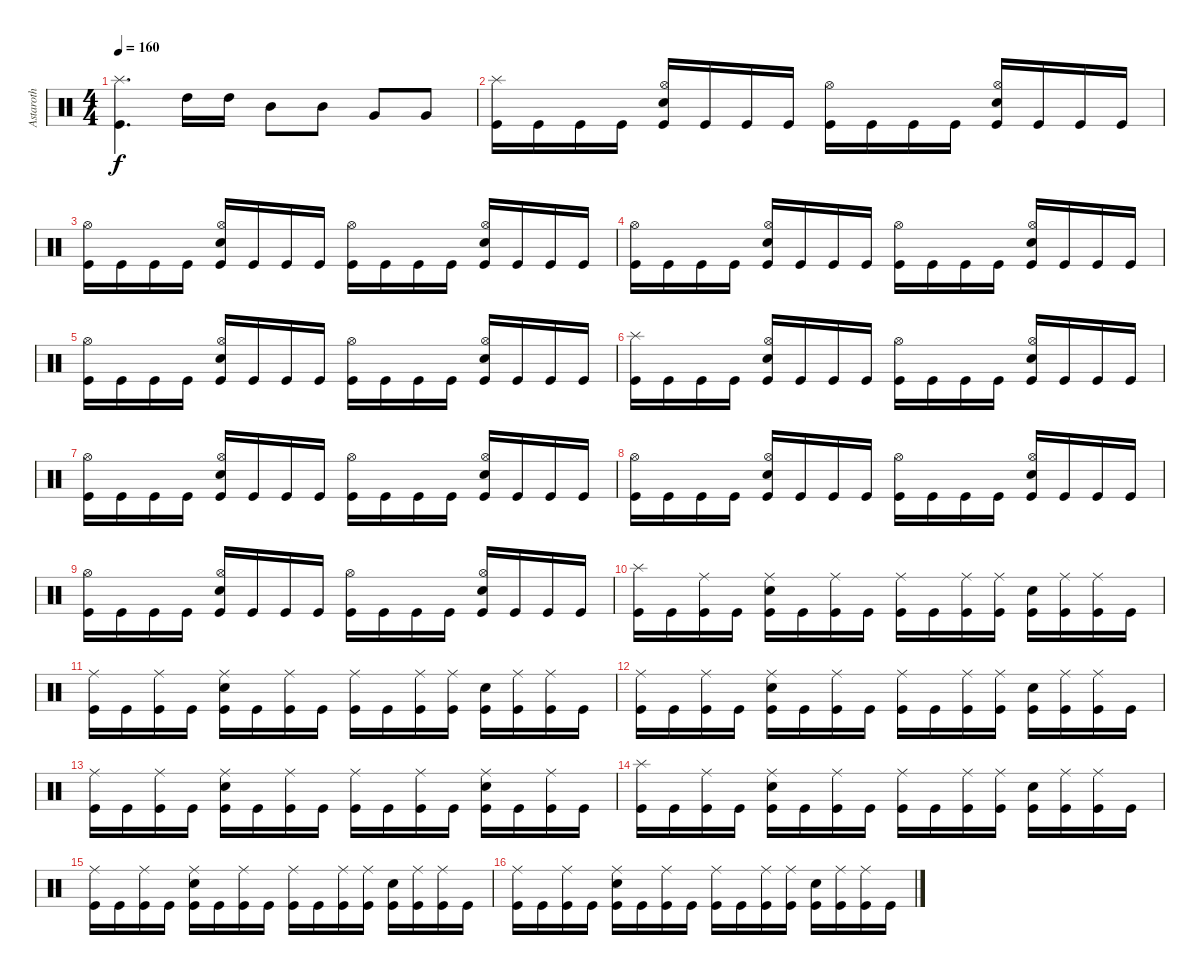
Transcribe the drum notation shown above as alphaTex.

\track ("Astaroth" "Astaroth") {instrument percussion}
\staff {score}
\articulation defaults
\ts (4 4)
\tempo 160
\clef neutral
\ks c
("Kick (hit)" "Splash (hit)").4{d dy f} "High Tom (hit)".16 "High Tom (hit)".16 "Mid Tom (hit)".8 "Mid Tom (hit)".8 "Very Low Tom (hit)".8 "Very Low Tom (hit)".8 |
("Kick (hit)" "Splash (hit)").16 "Kick (hit)".16 "Kick (hit)".16 "Kick (hit)".16 ("Kick (hit)" "Hi-Hat (open)" "Electric Snare (hit)").16 "Kick (hit)".16 "Kick (hit)".16 "Kick (hit)".16 ("Kick (hit)" "Hi-Hat (open)").16 "Kick (hit)".16 "Kick (hit)".16 "Kick (hit)".16 ("Kick (hit)" "Hi-Hat (open)" "Electric Snare (hit)").16 "Kick (hit)".16 "Kick (hit)".16 "Kick (hit)".16 |
("Kick (hit)" "Hi-Hat (open)").16 "Kick (hit)".16 "Kick (hit)".16 "Kick (hit)".16 ("Kick (hit)" "Hi-Hat (open)" "Electric Snare (hit)").16 "Kick (hit)".16 "Kick (hit)".16 "Kick (hit)".16 ("Kick (hit)" "Hi-Hat (open)").16 "Kick (hit)".16 "Kick (hit)".16 "Kick (hit)".16 ("Kick (hit)" "Hi-Hat (open)" "Electric Snare (hit)").16 "Kick (hit)".16 "Kick (hit)".16 "Kick (hit)".16 |
("Kick (hit)" "Hi-Hat (open)").16 "Kick (hit)".16 "Kick (hit)".16 "Kick (hit)".16 ("Kick (hit)" "Hi-Hat (open)" "Electric Snare (hit)").16 "Kick (hit)".16 "Kick (hit)".16 "Kick (hit)".16 ("Kick (hit)" "Hi-Hat (open)").16 "Kick (hit)".16 "Kick (hit)".16 "Kick (hit)".16 ("Kick (hit)" "Hi-Hat (open)" "Electric Snare (hit)").16 "Kick (hit)".16 "Kick (hit)".16 "Kick (hit)".16 |
("Kick (hit)" "Hi-Hat (open)").16 "Kick (hit)".16 "Kick (hit)".16 "Kick (hit)".16 ("Kick (hit)" "Hi-Hat (open)" "Electric Snare (hit)").16 "Kick (hit)".16 "Kick (hit)".16 "Kick (hit)".16 ("Kick (hit)" "Hi-Hat (open)").16 "Kick (hit)".16 "Kick (hit)".16 "Kick (hit)".16 ("Kick (hit)" "Hi-Hat (open)" "Electric Snare (hit)").16 "Kick (hit)".16 "Kick (hit)".16 "Kick (hit)".16 |
("Kick (hit)" "Splash (hit)").16 "Kick (hit)".16 "Kick (hit)".16 "Kick (hit)".16 ("Kick (hit)" "Hi-Hat (open)" "Electric Snare (hit)").16 "Kick (hit)".16 "Kick (hit)".16 "Kick (hit)".16 ("Kick (hit)" "Hi-Hat (open)").16 "Kick (hit)".16 "Kick (hit)".16 "Kick (hit)".16 ("Kick (hit)" "Hi-Hat (open)" "Electric Snare (hit)").16 "Kick (hit)".16 "Kick (hit)".16 "Kick (hit)".16 |
("Kick (hit)" "Hi-Hat (open)").16 "Kick (hit)".16 "Kick (hit)".16 "Kick (hit)".16 ("Kick (hit)" "Hi-Hat (open)" "Electric Snare (hit)").16 "Kick (hit)".16 "Kick (hit)".16 "Kick (hit)".16 ("Kick (hit)" "Hi-Hat (open)").16 "Kick (hit)".16 "Kick (hit)".16 "Kick (hit)".16 ("Kick (hit)" "Hi-Hat (open)" "Electric Snare (hit)").16 "Kick (hit)".16 "Kick (hit)".16 "Kick (hit)".16 |
("Kick (hit)" "Hi-Hat (open)").16 "Kick (hit)".16 "Kick (hit)".16 "Kick (hit)".16 ("Kick (hit)" "Hi-Hat (open)" "Electric Snare (hit)").16 "Kick (hit)".16 "Kick (hit)".16 "Kick (hit)".16 ("Kick (hit)" "Hi-Hat (open)").16 "Kick (hit)".16 "Kick (hit)".16 "Kick (hit)".16 ("Kick (hit)" "Hi-Hat (open)" "Electric Snare (hit)").16 "Kick (hit)".16 "Kick (hit)".16 "Kick (hit)".16 |
("Kick (hit)" "Hi-Hat (open)").16 "Kick (hit)".16 "Kick (hit)".16 "Kick (hit)".16 ("Kick (hit)" "Hi-Hat (open)" "Electric Snare (hit)").16 "Kick (hit)".16 "Kick (hit)".16 "Kick (hit)".16 ("Kick (hit)" "Hi-Hat (open)").16 "Kick (hit)".16 "Kick (hit)".16 "Kick (hit)".16 ("Kick (hit)" "Hi-Hat (open)" "Electric Snare (hit)").16 "Kick (hit)".16 "Kick (hit)".16 "Kick (hit)".16 |
("Kick (hit)" "Splash (hit)").16 "Kick (hit)".16 ("Kick (hit)" "Ride (middle)").16 "Kick (hit)".16 ("Kick (hit)" "Electric Snare (hit)" "Ride (middle)").16 "Kick (hit)".16 ("Kick (hit)" "Ride (middle)").16 "Kick (hit)".16 ("Kick (hit)" "Ride (middle)").16 "Kick (hit)".16 ("Kick (hit)" "Ride (middle)").16 ("Kick (hit)" "Ride (middle)").16 ("Kick (hit)" "Electric Snare (hit)").16 ("Kick (hit)" "Ride (middle)").16 ("Kick (hit)" "Ride (middle)").16 "Kick (hit)".16 |
("Kick (hit)" "Ride (middle)").16 "Kick (hit)".16 ("Kick (hit)" "Ride (middle)").16 "Kick (hit)".16 ("Kick (hit)" "Electric Snare (hit)" "Ride (middle)").16 "Kick (hit)".16 ("Kick (hit)" "Ride (middle)").16 "Kick (hit)".16 ("Kick (hit)" "Ride (middle)").16 "Kick (hit)".16 ("Kick (hit)" "Ride (middle)").16 ("Kick (hit)" "Ride (middle)").16 ("Kick (hit)" "Electric Snare (hit)").16 ("Kick (hit)" "Ride (middle)").16 ("Kick (hit)" "Ride (middle)").16 "Kick (hit)".16 |
("Kick (hit)" "Ride (middle)").16 "Kick (hit)".16 ("Kick (hit)" "Ride (middle)").16 "Kick (hit)".16 ("Kick (hit)" "Electric Snare (hit)" "Ride (middle)").16 "Kick (hit)".16 ("Kick (hit)" "Ride (middle)").16 "Kick (hit)".16 ("Kick (hit)" "Ride (middle)").16 "Kick (hit)".16 ("Kick (hit)" "Ride (middle)").16 ("Kick (hit)" "Ride (middle)").16 ("Kick (hit)" "Electric Snare (hit)").16 ("Kick (hit)" "Ride (middle)").16 ("Kick (hit)" "Ride (middle)").16 "Kick (hit)".16 |
("Kick (hit)" "Ride (middle)").16 "Kick (hit)".16 ("Kick (hit)" "Ride (middle)").16 "Kick (hit)".16 ("Kick (hit)" "Electric Snare (hit)" "Ride (middle)").16 "Kick (hit)".16 ("Kick (hit)" "Ride (middle)").16 "Kick (hit)".16 ("Kick (hit)" "Ride (middle)").16 "Kick (hit)".16 ("Kick (hit)" "Ride (middle)").16 "Kick (hit)".16 ("Kick (hit)" "Electric Snare (hit)" "Ride (middle)").16 "Kick (hit)".16 ("Kick (hit)" "Ride (middle)").16 "Kick (hit)".16 |
("Kick (hit)" "Splash (hit)").16 "Kick (hit)".16 ("Kick (hit)" "Ride (middle)").16 "Kick (hit)".16 ("Kick (hit)" "Electric Snare (hit)" "Ride (middle)").16 "Kick (hit)".16 ("Kick (hit)" "Ride (middle)").16 "Kick (hit)".16 ("Kick (hit)" "Ride (middle)").16 "Kick (hit)".16 ("Kick (hit)" "Ride (middle)").16 ("Kick (hit)" "Ride (middle)").16 ("Kick (hit)" "Electric Snare (hit)").16 ("Kick (hit)" "Ride (middle)").16 ("Kick (hit)" "Ride (middle)").16 "Kick (hit)".16 |
("Kick (hit)" "Ride (middle)").16 "Kick (hit)".16 ("Kick (hit)" "Ride (middle)").16 "Kick (hit)".16 ("Kick (hit)" "Electric Snare (hit)" "Ride (middle)").16 "Kick (hit)".16 ("Kick (hit)" "Ride (middle)").16 "Kick (hit)".16 ("Kick (hit)" "Ride (middle)").16 "Kick (hit)".16 ("Kick (hit)" "Ride (middle)").16 ("Kick (hit)" "Ride (middle)").16 ("Kick (hit)" "Electric Snare (hit)").16 ("Kick (hit)" "Ride (middle)").16 ("Kick (hit)" "Ride (middle)").16 "Kick (hit)".16 |
("Kick (hit)" "Ride (middle)").16 "Kick (hit)".16 ("Kick (hit)" "Ride (middle)").16 "Kick (hit)".16 ("Kick (hit)" "Electric Snare (hit)" "Ride (middle)").16 "Kick (hit)".16 ("Kick (hit)" "Ride (middle)").16 "Kick (hit)".16 ("Kick (hit)" "Ride (middle)").16 "Kick (hit)".16 ("Kick (hit)" "Ride (middle)").16 ("Kick (hit)" "Ride (middle)").16 ("Kick (hit)" "Electric Snare (hit)").16 ("Kick (hit)" "Ride (middle)").16 ("Kick (hit)" "Ride (middle)").16 "Kick (hit)".16
